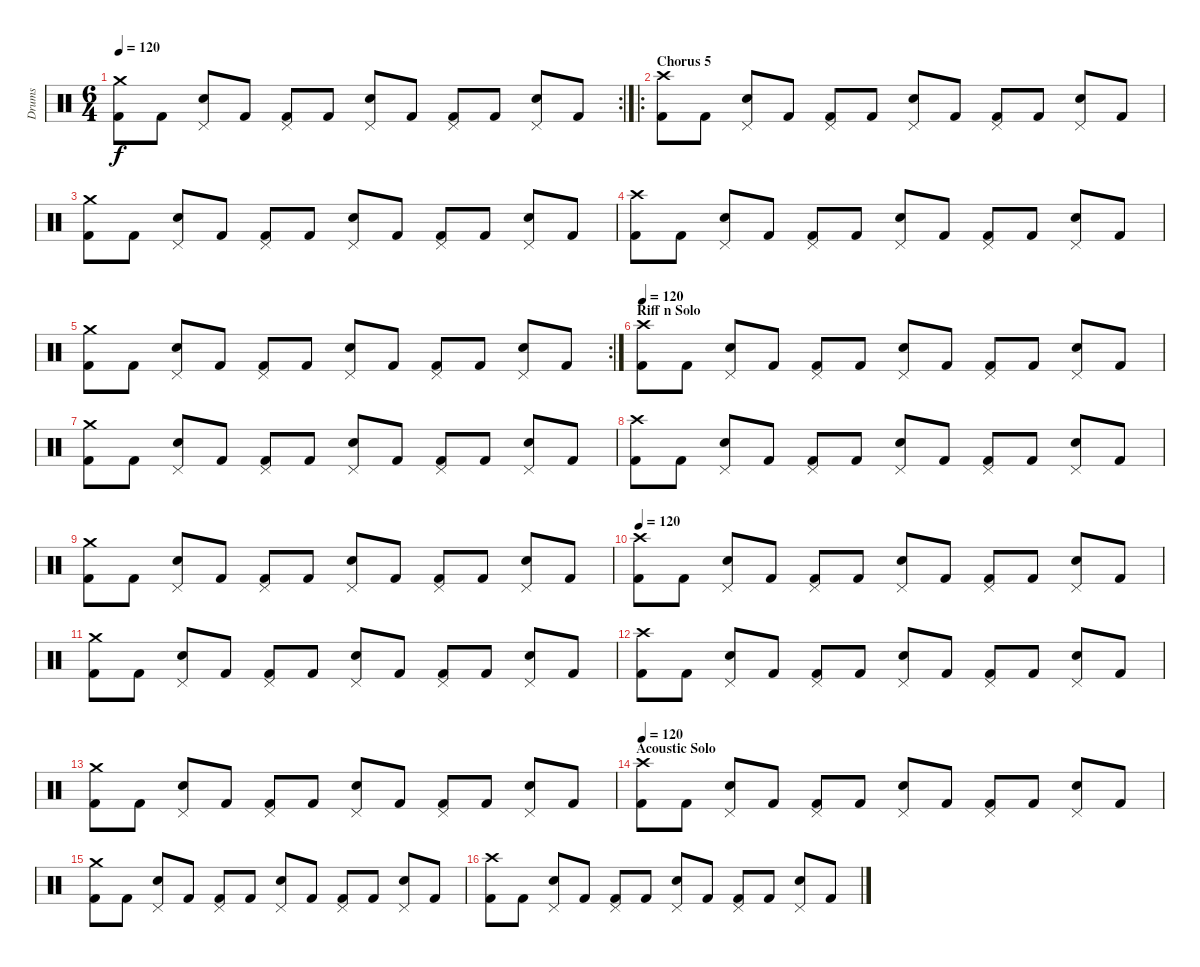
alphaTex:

\track ("Drums" "Drums") {instrument percussion}
\staff {score}
\articulation defaults
\rc 2
\ts (6 4)
\tempo 120
\clef neutral
\ks c
("Crash medium (hit)" "Kick (hit) 2").8{dy f} "Kick (hit) 2".8 ("Pedal Hi-Hat (hit)" "Snare (hit) 2").8 "Kick (hit) 2".8 ("Pedal Hi-Hat (hit)" "Kick (hit) 2").8 "Kick (hit) 2".8 ("Pedal Hi-Hat (hit)" "Snare (hit) 2").8 "Kick (hit) 2".8 ("Pedal Hi-Hat (hit)" "Kick (hit) 2").8 "Kick (hit) 2".8 ("Pedal Hi-Hat (hit)" "Snare (hit) 2").8 "Kick (hit) 2".8 |
\ro
\section ("" "Chorus 5")
("Crash high (hit)" "Kick (hit) 2").8 "Kick (hit) 2".8 ("Pedal Hi-Hat (hit)" "Snare (hit) 2").8 "Kick (hit) 2".8 ("Pedal Hi-Hat (hit)" "Kick (hit) 2").8 "Kick (hit) 2".8 ("Pedal Hi-Hat (hit)" "Snare (hit) 2").8 "Kick (hit) 2".8 ("Pedal Hi-Hat (hit)" "Kick (hit) 2").8 "Kick (hit) 2".8 ("Pedal Hi-Hat (hit)" "Snare (hit) 2").8 "Kick (hit) 2".8 |
("Crash medium (hit)" "Kick (hit) 2").8 "Kick (hit) 2".8 ("Pedal Hi-Hat (hit)" "Snare (hit) 2").8 "Kick (hit) 2".8 ("Pedal Hi-Hat (hit)" "Kick (hit) 2").8 "Kick (hit) 2".8 ("Pedal Hi-Hat (hit)" "Snare (hit) 2").8 "Kick (hit) 2".8 ("Pedal Hi-Hat (hit)" "Kick (hit) 2").8 "Kick (hit) 2".8 ("Pedal Hi-Hat (hit)" "Snare (hit) 2").8 "Kick (hit) 2".8 |
("Crash high (hit)" "Kick (hit) 2").8 "Kick (hit) 2".8 ("Pedal Hi-Hat (hit)" "Snare (hit) 2").8 "Kick (hit) 2".8 ("Pedal Hi-Hat (hit)" "Kick (hit) 2").8 "Kick (hit) 2".8 ("Pedal Hi-Hat (hit)" "Snare (hit) 2").8 "Kick (hit) 2".8 ("Pedal Hi-Hat (hit)" "Kick (hit) 2").8 "Kick (hit) 2".8 ("Pedal Hi-Hat (hit)" "Snare (hit) 2").8 "Kick (hit) 2".8 |
\rc 2
("Crash medium (hit)" "Kick (hit) 2").8 "Kick (hit) 2".8 ("Pedal Hi-Hat (hit)" "Snare (hit) 2").8 "Kick (hit) 2".8 ("Pedal Hi-Hat (hit)" "Kick (hit) 2").8 "Kick (hit) 2".8 ("Pedal Hi-Hat (hit)" "Snare (hit) 2").8 "Kick (hit) 2".8 ("Pedal Hi-Hat (hit)" "Kick (hit) 2").8 "Kick (hit) 2".8 ("Pedal Hi-Hat (hit)" "Snare (hit) 2").8 "Kick (hit) 2".8 |
\section ("" "Riff n Solo")
\tempo 120
("Crash high (hit)" "Kick (hit) 2").8 "Kick (hit) 2".8 ("Pedal Hi-Hat (hit)" "Snare (hit) 2").8 "Kick (hit) 2".8 ("Pedal Hi-Hat (hit)" "Kick (hit) 2").8 "Kick (hit) 2".8 ("Pedal Hi-Hat (hit)" "Snare (hit) 2").8 "Kick (hit) 2".8 ("Pedal Hi-Hat (hit)" "Kick (hit) 2").8 "Kick (hit) 2".8 ("Pedal Hi-Hat (hit)" "Snare (hit) 2").8 "Kick (hit) 2".8 |
("Crash medium (hit)" "Kick (hit) 2").8 "Kick (hit) 2".8 ("Pedal Hi-Hat (hit)" "Snare (hit) 2").8 "Kick (hit) 2".8 ("Pedal Hi-Hat (hit)" "Kick (hit) 2").8 "Kick (hit) 2".8 ("Pedal Hi-Hat (hit)" "Snare (hit) 2").8 "Kick (hit) 2".8 ("Pedal Hi-Hat (hit)" "Kick (hit) 2").8 "Kick (hit) 2".8 ("Pedal Hi-Hat (hit)" "Snare (hit) 2").8 "Kick (hit) 2".8 |
("Crash high (hit)" "Kick (hit) 2").8 "Kick (hit) 2".8 ("Pedal Hi-Hat (hit)" "Snare (hit) 2").8 "Kick (hit) 2".8 ("Pedal Hi-Hat (hit)" "Kick (hit) 2").8 "Kick (hit) 2".8 ("Pedal Hi-Hat (hit)" "Snare (hit) 2").8 "Kick (hit) 2".8 ("Pedal Hi-Hat (hit)" "Kick (hit) 2").8 "Kick (hit) 2".8 ("Pedal Hi-Hat (hit)" "Snare (hit) 2").8 "Kick (hit) 2".8 |
("Crash medium (hit)" "Kick (hit) 2").8 "Kick (hit) 2".8 ("Pedal Hi-Hat (hit)" "Snare (hit) 2").8 "Kick (hit) 2".8 ("Pedal Hi-Hat (hit)" "Kick (hit) 2").8 "Kick (hit) 2".8 ("Pedal Hi-Hat (hit)" "Snare (hit) 2").8 "Kick (hit) 2".8 ("Pedal Hi-Hat (hit)" "Kick (hit) 2").8 "Kick (hit) 2".8 ("Pedal Hi-Hat (hit)" "Snare (hit) 2").8 "Kick (hit) 2".8 |
\tempo 120
("Crash high (hit)" "Kick (hit) 2").8 "Kick (hit) 2".8 ("Pedal Hi-Hat (hit)" "Snare (hit) 2").8 "Kick (hit) 2".8 ("Pedal Hi-Hat (hit)" "Kick (hit) 2").8 "Kick (hit) 2".8 ("Pedal Hi-Hat (hit)" "Snare (hit) 2").8 "Kick (hit) 2".8 ("Pedal Hi-Hat (hit)" "Kick (hit) 2").8 "Kick (hit) 2".8 ("Pedal Hi-Hat (hit)" "Snare (hit) 2").8 "Kick (hit) 2".8 |
("Crash medium (hit)" "Kick (hit) 2").8 "Kick (hit) 2".8 ("Pedal Hi-Hat (hit)" "Snare (hit) 2").8 "Kick (hit) 2".8 ("Pedal Hi-Hat (hit)" "Kick (hit) 2").8 "Kick (hit) 2".8 ("Pedal Hi-Hat (hit)" "Snare (hit) 2").8 "Kick (hit) 2".8 ("Pedal Hi-Hat (hit)" "Kick (hit) 2").8 "Kick (hit) 2".8 ("Pedal Hi-Hat (hit)" "Snare (hit) 2").8 "Kick (hit) 2".8 |
("Crash high (hit)" "Kick (hit) 2").8 "Kick (hit) 2".8 ("Pedal Hi-Hat (hit)" "Snare (hit) 2").8 "Kick (hit) 2".8 ("Pedal Hi-Hat (hit)" "Kick (hit) 2").8 "Kick (hit) 2".8 ("Pedal Hi-Hat (hit)" "Snare (hit) 2").8 "Kick (hit) 2".8 ("Pedal Hi-Hat (hit)" "Kick (hit) 2").8 "Kick (hit) 2".8 ("Pedal Hi-Hat (hit)" "Snare (hit) 2").8 "Kick (hit) 2".8 |
("Crash medium (hit)" "Kick (hit) 2").8 "Kick (hit) 2".8 ("Pedal Hi-Hat (hit)" "Snare (hit) 2").8 "Kick (hit) 2".8 ("Pedal Hi-Hat (hit)" "Kick (hit) 2").8 "Kick (hit) 2".8 ("Pedal Hi-Hat (hit)" "Snare (hit) 2").8 "Kick (hit) 2".8 ("Pedal Hi-Hat (hit)" "Kick (hit) 2").8 "Kick (hit) 2".8 ("Pedal Hi-Hat (hit)" "Snare (hit) 2").8 "Kick (hit) 2".8 |
\section ("" "Acoustic Solo")
\tempo 120
("Crash high (hit)" "Kick (hit) 2").8 "Kick (hit) 2".8 ("Pedal Hi-Hat (hit)" "Snare (hit) 2").8 "Kick (hit) 2".8 ("Pedal Hi-Hat (hit)" "Kick (hit) 2").8 "Kick (hit) 2".8 ("Pedal Hi-Hat (hit)" "Snare (hit) 2").8 "Kick (hit) 2".8 ("Pedal Hi-Hat (hit)" "Kick (hit) 2").8 "Kick (hit) 2".8 ("Pedal Hi-Hat (hit)" "Snare (hit) 2").8 "Kick (hit) 2".8 |
("Crash medium (hit)" "Kick (hit) 2").8 "Kick (hit) 2".8 ("Pedal Hi-Hat (hit)" "Snare (hit) 2").8 "Kick (hit) 2".8 ("Pedal Hi-Hat (hit)" "Kick (hit) 2").8 "Kick (hit) 2".8 ("Pedal Hi-Hat (hit)" "Snare (hit) 2").8 "Kick (hit) 2".8 ("Pedal Hi-Hat (hit)" "Kick (hit) 2").8 "Kick (hit) 2".8 ("Pedal Hi-Hat (hit)" "Snare (hit) 2").8 "Kick (hit) 2".8 |
("Crash high (hit)" "Kick (hit) 2").8 "Kick (hit) 2".8 ("Pedal Hi-Hat (hit)" "Snare (hit) 2").8 "Kick (hit) 2".8 ("Pedal Hi-Hat (hit)" "Kick (hit) 2").8 "Kick (hit) 2".8 ("Pedal Hi-Hat (hit)" "Snare (hit) 2").8 "Kick (hit) 2".8 ("Pedal Hi-Hat (hit)" "Kick (hit) 2").8 "Kick (hit) 2".8 ("Pedal Hi-Hat (hit)" "Snare (hit) 2").8 "Kick (hit) 2".8
